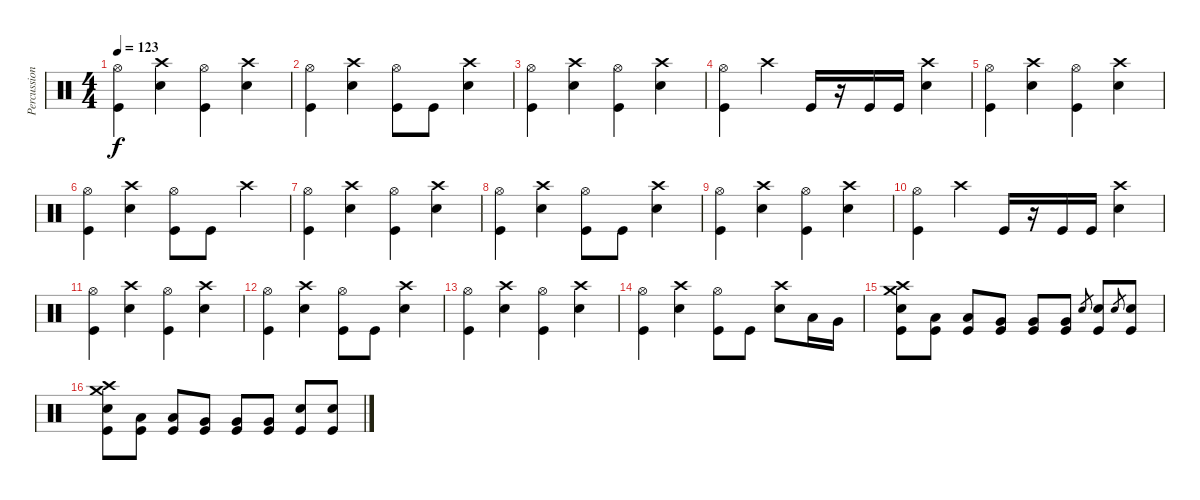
\track ("Percussion" "Percussion") {instrument percussion}
\staff {score}
\articulation defaults
\ts (4 4)
\tempo 123
\clef neutral
\ks c
("Hi-Hat (open)" "Kick (hit)").4{dy f} ("Crash high (hit)" "Snare (hit) 2").4 ("Hi-Hat (open)" "Kick (hit)").4 ("Crash high (hit)" "Snare (hit) 2").4 |
("Hi-Hat (open)" "Kick (hit)").4 ("Crash high (hit)" "Snare (hit) 2").4 ("Hi-Hat (open)" "Kick (hit)").8 "Kick (hit)".8 ("Crash high (hit)" "Snare (hit) 2").4 |
("Hi-Hat (open)" "Kick (hit)").4 ("Crash high (hit)" "Snare (hit) 2").4 ("Hi-Hat (open)" "Kick (hit)").4 ("Crash high (hit)" "Snare (hit) 2").4 |
("Hi-Hat (open)" "Kick (hit)").4 "Crash high (hit)".4 "Kick (hit)".16 r.16 "Kick (hit)".16 "Kick (hit)".16 ("Crash high (hit)" "Snare (hit) 2").4 |
("Hi-Hat (open)" "Kick (hit)").4 ("Crash high (hit)" "Snare (hit) 2").4 ("Hi-Hat (open)" "Kick (hit)").4 ("Crash high (hit)" "Snare (hit) 2").4 |
("Hi-Hat (open)" "Kick (hit)").4 ("Crash high (hit)" "Snare (hit) 2").4 ("Hi-Hat (open)" "Kick (hit)").8 "Kick (hit)".8 "Crash high (hit)".4 |
("Hi-Hat (open)" "Kick (hit)").4 ("Crash high (hit)" "Snare (hit) 2").4 ("Hi-Hat (open)" "Kick (hit)").4 ("Crash high (hit)" "Snare (hit) 2").4 |
("Hi-Hat (open)" "Kick (hit)").4 ("Crash high (hit)" "Snare (hit) 2").4 ("Hi-Hat (open)" "Kick (hit)").8 "Kick (hit)".8 ("Crash high (hit)" "Snare (hit) 2").4 |
("Hi-Hat (open)" "Kick (hit)").4 ("Crash high (hit)" "Snare (hit) 2").4 ("Hi-Hat (open)" "Kick (hit)").4 ("Crash high (hit)" "Snare (hit) 2").4 |
("Hi-Hat (open)" "Kick (hit)").4 "Crash high (hit)".4 "Kick (hit)".16 r.16 "Kick (hit)".16 "Kick (hit)".16 ("Crash high (hit)" "Snare (hit) 2").4 |
("Hi-Hat (open)" "Kick (hit)").4 ("Crash high (hit)" "Snare (hit) 2").4 ("Hi-Hat (open)" "Kick (hit)").4 ("Crash high (hit)" "Snare (hit) 2").4 |
("Hi-Hat (open)" "Kick (hit)").4 ("Crash high (hit)" "Snare (hit) 2").4 ("Hi-Hat (open)" "Kick (hit)").8 "Kick (hit)".8 ("Crash high (hit)" "Snare (hit) 2").4 |
("Hi-Hat (open)" "Kick (hit)").4 ("Crash high (hit)" "Snare (hit) 2").4 ("Hi-Hat (open)" "Kick (hit)").4 ("Crash high (hit)" "Snare (hit) 2").4 |
("Hi-Hat (open)" "Kick (hit)").4 ("Crash high (hit)" "Snare (hit) 2").4 ("Hi-Hat (open)" "Kick (hit)").8 "Kick (hit)".8 ("Crash high (hit)" "Snare (hit) 2").8 "Low Tom (hit)".16 "Very Low Tom (hit)".16 |
("Crash high (hit)" "Crash medium (hit)" "Snare (hit) 2" "Kick (hit)").8 ("Low Tom (hit)" "Kick (hit)").8 ("Low Tom (hit)" "Kick (hit)").8 ("Very Low Tom (hit)" "Kick (hit)").8 ("Very Low Tom (hit)" "Kick (hit)").8 ("Very Low Tom (hit)" "Kick (hit)").8 "Snare (hit) 2".8{gr} ("Snare (hit) 2" "Kick (hit)").8 "Snare (hit) 2".8{gr} ("Snare (hit) 2" "Kick (hit)").8 |
("Crash high (hit)" "Crash medium (hit)" "Snare (hit) 2" "Kick (hit)").8 ("Low Tom (hit)" "Kick (hit)").8 ("Low Tom (hit)" "Kick (hit)").8 ("Very Low Tom (hit)" "Kick (hit)").8 ("Very Low Tom (hit)" "Kick (hit)").8 ("Very Low Tom (hit)" "Kick (hit)").8 ("Snare (hit) 2" "Kick (hit)").8 ("Snare (hit) 2" "Kick (hit)").8
